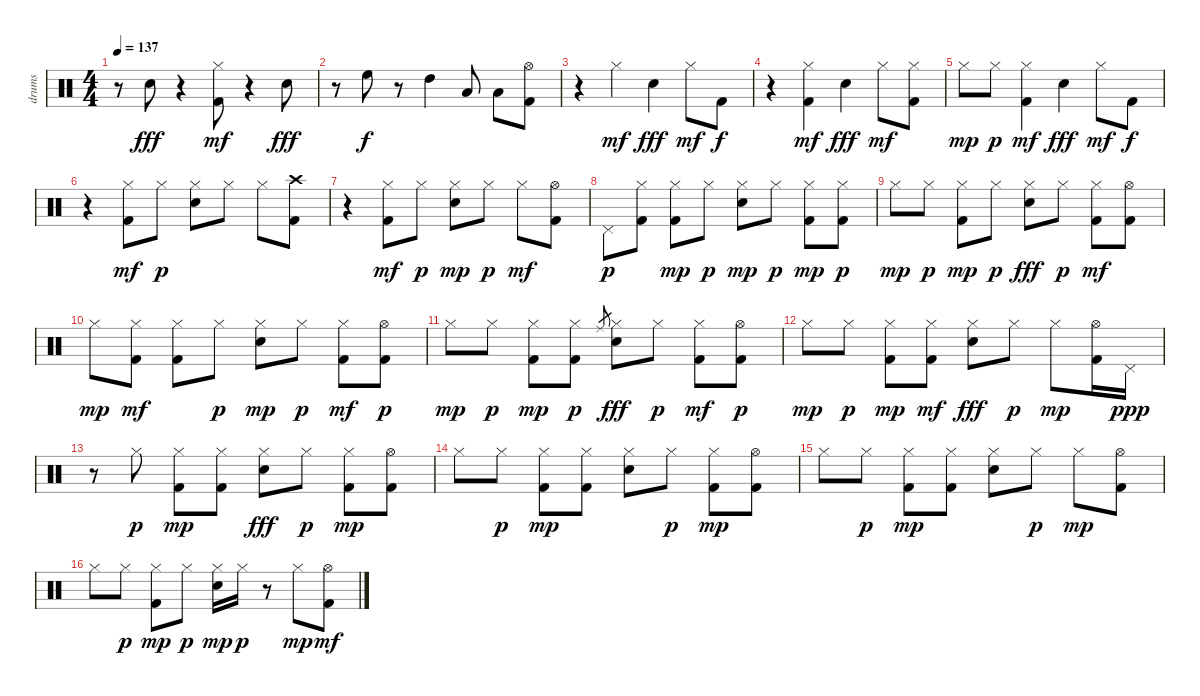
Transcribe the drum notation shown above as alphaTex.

\track ("drums" "drums") {instrument percussion}
\staff {score}
\articulation defaults
\ts (4 4)
\tempo 137
\clef neutral
\ks c
r.8{dy mf} "Electric Snare (hit)".8{dy fff} r.4 ("Kick (hit) 2" "Hi-Hat (closed)").8{dy mf} r.4 "Electric Snare (hit)".8{dy fff} |
r.8 "High Floor Tom (hit)".8{dy f} r.8 "High Tom (hit)".4 "Low Tom (hit)".8 "Low Tom (hit)".8 ("Hi-Hat (open)" "Kick (hit) 2").8 |
r.4 "Hi-Hat (closed)".4{dy mf} "Electric Snare (hit)".4{dy fff} "Hi-Hat (closed)".8{dy mf} "Kick (hit) 2".8{dy f} |
r.4 ("Hi-Hat (closed)" "Kick (hit) 2").4{dy mf} "Electric Snare (hit)".4{dy fff} "Hi-Hat (closed)".8{dy mf} ("Hi-Hat (closed)" "Kick (hit) 2").8 |
"Hi-Hat (closed)".8{dy mp} "Hi-Hat (closed)".8{dy p} ("Kick (hit) 2" "Hi-Hat (closed)").4{dy mf} "Electric Snare (hit)".4{dy fff} "Hi-Hat (closed)".8{dy mf} "Kick (hit) 2".8{dy f} |
r.4 ("Kick (hit) 2" "Hi-Hat (closed)").8{dy mf} "Hi-Hat (closed)".8{dy p} ("Electric Snare (hit)" "Hi-Hat (closed)").8 "Hi-Hat (closed)".8 "Hi-Hat (closed)".8 ("Kick (hit) 2" "Crash high (hit)").8 |
r.4 ("Hi-Hat (closed)" "Kick (hit) 2").8{dy mf} "Hi-Hat (closed)".8{dy p} ("Electric Snare (hit)" "Hi-Hat (closed)").8{dy mp} "Hi-Hat (closed)".8{dy p} "Hi-Hat (closed)".8{dy mf} ("Kick (hit) 2" "Hi-Hat (open)").8 |
"Pedal Hi-Hat (hit)".8{dy p} ("Kick (hit) 2" "Hi-Hat (closed)").8 ("Kick (hit) 2" "Hi-Hat (closed)").8{dy mp} "Hi-Hat (closed)".8{dy p} ("Electric Snare (hit)" "Hi-Hat (closed)").8{dy mp} "Hi-Hat (closed)".8{dy p} ("Kick (hit) 2" "Hi-Hat (closed)").8{dy mp} ("Kick (hit) 2" "Hi-Hat (closed)").8{dy p} |
"Hi-Hat (closed)".8{dy mp} "Hi-Hat (closed)".8{dy p} ("Kick (hit) 2" "Hi-Hat (closed)").8{dy mp} "Hi-Hat (closed)".8{dy p} ("Hi-Hat (closed)" "Electric Snare (hit)").8{dy fff} "Hi-Hat (closed)".8{dy p} ("Hi-Hat (closed)" "Kick (hit) 2").8{dy mf} ("Hi-Hat (open)" "Kick (hit) 2").8 |
"Hi-Hat (closed)".8{dy mp} ("Hi-Hat (closed)" "Kick (hit) 2").8{dy mf} ("Hi-Hat (closed)" "Kick (hit) 2").8 "Hi-Hat (closed)".8{dy p} ("Electric Snare (hit)" "Hi-Hat (closed)").8{dy mp} "Hi-Hat (closed)".8{dy p} ("Hi-Hat (closed)" "Kick (hit) 2").8{dy mf} ("Hi-Hat (open)" "Kick (hit) 2").8{dy p} |
"Hi-Hat (closed)".8{dy mp} "Hi-Hat (closed)".8{dy p} ("Hi-Hat (closed)" "Kick (hit) 2").8{dy mp} ("Kick (hit) 2" "Hi-Hat (closed)").8{dy p} "Ride (middle)".8{gr} ("Hi-Hat (closed)" "Electric Snare (hit)").8{dy fff} "Hi-Hat (closed)".8{dy p} ("Hi-Hat (closed)" "Kick (hit) 2").8{dy mf} ("Hi-Hat (open)" "Kick (hit) 2").8{dy p} |
"Hi-Hat (closed)".8{dy mp} "Hi-Hat (closed)".8{dy p} ("Hi-Hat (closed)" "Kick (hit) 2").8{dy mp} ("Hi-Hat (closed)" "Kick (hit) 2").8{dy mf} ("Hi-Hat (closed)" "Electric Snare (hit)").8{dy fff} "Hi-Hat (closed)".8{dy p} "Hi-Hat (closed)".8{dy mp} ("Kick (hit) 2" "Hi-Hat (open)").16 "Pedal Hi-Hat (hit)".16{dy ppp} |
r.8 "Hi-Hat (closed)".8{dy p} ("Kick (hit) 2" "Hi-Hat (closed)").8{dy mp} ("Hi-Hat (closed)" "Kick (hit) 2").8 ("Hi-Hat (closed)" "Electric Snare (hit)").8{dy fff} "Hi-Hat (closed)".8{dy p} ("Kick (hit) 2" "Hi-Hat (closed)").8{dy mp} ("Hi-Hat (open)" "Kick (hit) 2").8 |
"Hi-Hat (closed)".8 "Hi-Hat (closed)".8{dy p} ("Hi-Hat (closed)" "Kick (hit) 2").8{dy mp} ("Hi-Hat (closed)" "Kick (hit) 2").8 ("Electric Snare (hit)" "Hi-Hat (closed)").8 "Hi-Hat (closed)".8{dy p} ("Kick (hit) 2" "Hi-Hat (closed)").8{dy mp} ("Kick (hit) 2" "Hi-Hat (open)").8 |
"Hi-Hat (closed)".8 "Hi-Hat (closed)".8{dy p} ("Kick (hit) 2" "Hi-Hat (closed)").8{dy mp} ("Hi-Hat (closed)" "Kick (hit) 2").8 ("Electric Snare (hit)" "Hi-Hat (closed)").8 "Hi-Hat (closed)".8{dy p} "Hi-Hat (closed)".8{dy mp} ("Kick (hit) 2" "Hi-Hat (open)").8 |
"Hi-Hat (closed)".8 "Hi-Hat (closed)".8{dy p} ("Kick (hit) 2" "Hi-Hat (closed)").8{dy mp} "Hi-Hat (closed)".8{dy p} ("Electric Snare (hit)" "Hi-Hat (closed)").16{dy mp} "Hi-Hat (closed)".16{dy p} r.8 "Hi-Hat (closed)".8{dy mp} ("Kick (hit) 2" "Hi-Hat (open)").8{dy mf}
